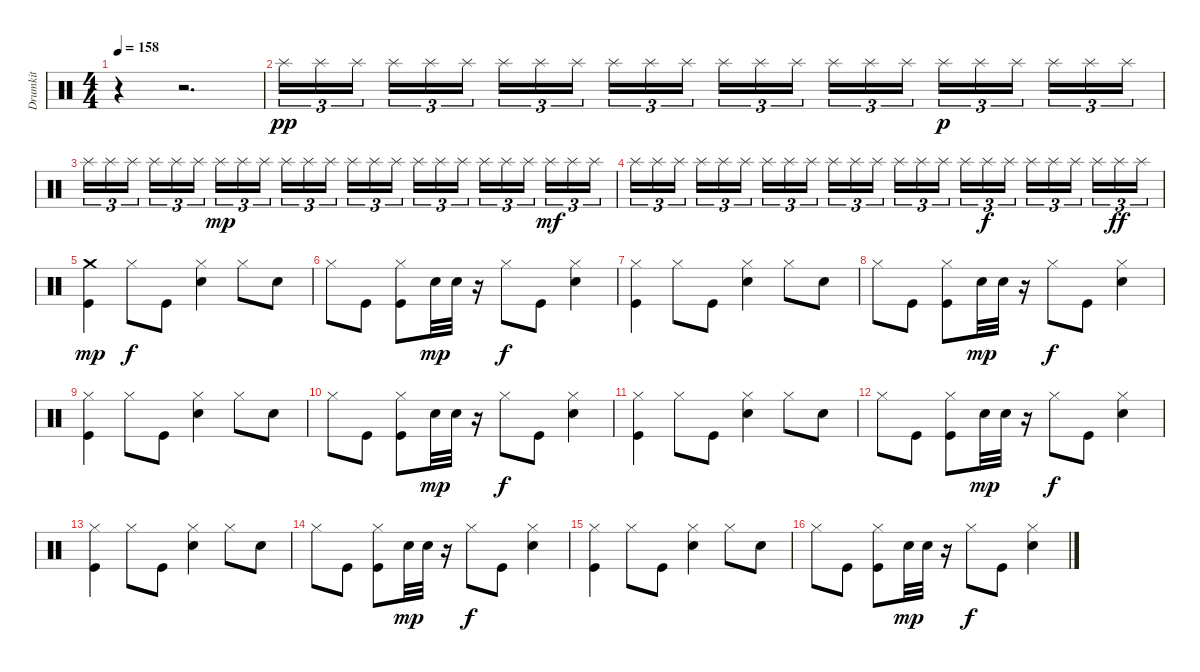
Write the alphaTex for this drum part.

\track ("Drumkit" "Drumkit") {instrument percussion}
\staff {score}
\articulation defaults
\ts (4 4)
\tempo 158
\clef neutral
\ks c
r.4{dy ff} r.2{d} |
"Splash (hit)".16{tu (3 2) dy pp} "Splash (hit)".16{tu (3 2)} "Splash (hit)".16{tu (3 2)} "Splash (hit)".16{tu (3 2)} "Splash (hit)".16{tu (3 2)} "Splash (hit)".16{tu (3 2)} "Splash (hit)".16{tu (3 2)} "Splash (hit)".16{tu (3 2)} "Splash (hit)".16{tu (3 2)} "Splash (hit)".16{tu (3 2)} "Splash (hit)".16{tu (3 2)} "Splash (hit)".16{tu (3 2)} "Splash (hit)".16{tu (3 2)} "Splash (hit)".16{tu (3 2)} "Splash (hit)".16{tu (3 2)} "Splash (hit)".16{tu (3 2)} "Splash (hit)".16{tu (3 2)} "Splash (hit)".16{tu (3 2)} "Splash (hit)".16{tu (3 2) dy p} "Splash (hit)".16{tu (3 2)} "Splash (hit)".16{tu (3 2)} "Splash (hit)".16{tu (3 2)} "Splash (hit)".16{tu (3 2)} "Splash (hit)".16{tu (3 2)} |
"Splash (hit)".16{tu (3 2)} "Splash (hit)".16{tu (3 2)} "Splash (hit)".16{tu (3 2)} "Splash (hit)".16{tu (3 2)} "Splash (hit)".16{tu (3 2)} "Splash (hit)".16{tu (3 2)} "Splash (hit)".16{tu (3 2) dy mp} "Splash (hit)".16{tu (3 2)} "Splash (hit)".16{tu (3 2)} "Splash (hit)".16{tu (3 2)} "Splash (hit)".16{tu (3 2)} "Splash (hit)".16{tu (3 2)} "Splash (hit)".16{tu (3 2)} "Splash (hit)".16{tu (3 2)} "Splash (hit)".16{tu (3 2)} "Splash (hit)".16{tu (3 2)} "Splash (hit)".16{tu (3 2)} "Splash (hit)".16{tu (3 2)} "Splash (hit)".16{tu (3 2)} "Splash (hit)".16{tu (3 2)} "Splash (hit)".16{tu (3 2)} "Splash (hit)".16{tu (3 2) dy mf} "Splash (hit)".16{tu (3 2)} "Splash (hit)".16{tu (3 2)} |
"Splash (hit)".16{tu (3 2)} "Splash (hit)".16{tu (3 2)} "Splash (hit)".16{tu (3 2)} "Splash (hit)".16{tu (3 2)} "Splash (hit)".16{tu (3 2)} "Splash (hit)".16{tu (3 2)} "Splash (hit)".16{tu (3 2)} "Splash (hit)".16{tu (3 2)} "Splash (hit)".16{tu (3 2)} "Splash (hit)".16{tu (3 2)} "Splash (hit)".16{tu (3 2)} "Splash (hit)".16{tu (3 2)} "Splash (hit)".16{tu (3 2)} "Splash (hit)".16{tu (3 2)} "Splash (hit)".16{tu (3 2)} "Splash (hit)".16{tu (3 2)} "Splash (hit)".16{tu (3 2) dy f} "Splash (hit)".16{tu (3 2)} "Splash (hit)".16{tu (3 2)} "Splash (hit)".16{tu (3 2)} "Splash (hit)".16{tu (3 2)} "Splash (hit)".16{tu (3 2)} "Splash (hit)".16{tu (3 2) dy ff} "Splash (hit)".16{tu (3 2)} |
("Crash medium (hit)" "Kick (hit)").4{dy mp} "Hi-Hat (closed)".8{dy f} "Kick (hit)".8 ("Hi-Hat (closed)" "Snare (hit) 2").4 "Hi-Hat (closed)".8 "Snare (hit) 2".8 |
"Hi-Hat (closed)".8 "Kick (hit)".8 ("Hi-Hat (closed)" "Kick (hit)").8 "Snare (hit) 2".32{dy mp} "Snare (hit) 2".32 r.16 "Hi-Hat (closed)".8{dy f} "Kick (hit)".8 ("Hi-Hat (closed)" "Snare (hit) 2").4 |
("Hi-Hat (closed)" "Kick (hit)").4 "Hi-Hat (closed)".8 "Kick (hit)".8 ("Hi-Hat (closed)" "Snare (hit) 2").4 "Hi-Hat (closed)".8 "Snare (hit) 2".8 |
"Hi-Hat (closed)".8 "Kick (hit)".8 ("Hi-Hat (closed)" "Kick (hit)").8 "Snare (hit) 2".32{dy mp} "Snare (hit) 2".32 r.16 "Hi-Hat (closed)".8{dy f} "Kick (hit)".8 ("Hi-Hat (closed)" "Snare (hit) 2").4 |
("Hi-Hat (closed)" "Kick (hit)").4 "Hi-Hat (closed)".8 "Kick (hit)".8 ("Hi-Hat (closed)" "Snare (hit) 2").4 "Hi-Hat (closed)".8 "Snare (hit) 2".8 |
"Hi-Hat (closed)".8 "Kick (hit)".8 ("Hi-Hat (closed)" "Kick (hit)").8 "Snare (hit) 2".32{dy mp} "Snare (hit) 2".32 r.16 "Hi-Hat (closed)".8{dy f} "Kick (hit)".8 ("Hi-Hat (closed)" "Snare (hit) 2").4 |
("Hi-Hat (closed)" "Kick (hit)").4 "Hi-Hat (closed)".8 "Kick (hit)".8 ("Hi-Hat (closed)" "Snare (hit) 2").4 "Hi-Hat (closed)".8 "Snare (hit) 2".8 |
"Hi-Hat (closed)".8 "Kick (hit)".8 ("Hi-Hat (closed)" "Kick (hit)").8 "Snare (hit) 2".32{dy mp} "Snare (hit) 2".32 r.16 "Hi-Hat (closed)".8{dy f} "Kick (hit)".8 ("Hi-Hat (closed)" "Snare (hit) 2").4 |
("Hi-Hat (closed)" "Kick (hit)").4 "Hi-Hat (closed)".8 "Kick (hit)".8 ("Hi-Hat (closed)" "Snare (hit) 2").4 "Hi-Hat (closed)".8 "Snare (hit) 2".8 |
"Hi-Hat (closed)".8 "Kick (hit)".8 ("Hi-Hat (closed)" "Kick (hit)").8 "Snare (hit) 2".32{dy mp} "Snare (hit) 2".32 r.16 "Hi-Hat (closed)".8{dy f} "Kick (hit)".8 ("Hi-Hat (closed)" "Snare (hit) 2").4 |
("Hi-Hat (closed)" "Kick (hit)").4 "Hi-Hat (closed)".8 "Kick (hit)".8 ("Hi-Hat (closed)" "Snare (hit) 2").4 "Hi-Hat (closed)".8 "Snare (hit) 2".8 |
"Hi-Hat (closed)".8 "Kick (hit)".8 ("Hi-Hat (closed)" "Kick (hit)").8 "Snare (hit) 2".32{dy mp} "Snare (hit) 2".32 r.16 "Hi-Hat (closed)".8{dy f} "Kick (hit)".8 ("Hi-Hat (closed)" "Snare (hit) 2").4
